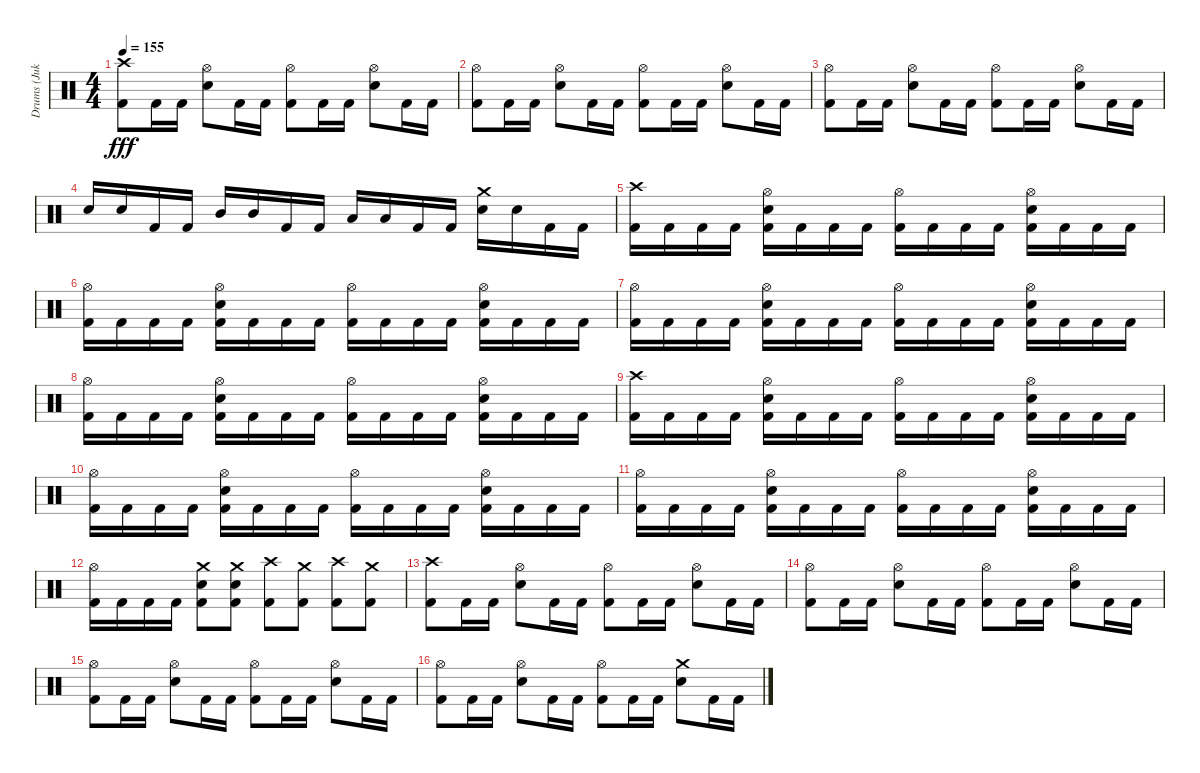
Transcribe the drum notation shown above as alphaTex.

\track ("Drums (Jukka)" "Drums (Juk") {instrument percussion}
\staff {score}
\articulation defaults
\ts (4 4)
\tempo 155
\clef neutral
\ks c
("Kick (hit) 2" "Crash high (hit)").8{dy fff} "Kick (hit) 2".16 "Kick (hit) 2".16 ("Snare (hit) 2" "Hi-Hat (open)").8 "Kick (hit) 2".16 "Kick (hit) 2".16 ("Kick (hit) 2" "Hi-Hat (open)").8 "Kick (hit) 2".16 "Kick (hit) 2".16 ("Snare (hit) 2" "Hi-Hat (open)").8 "Kick (hit) 2".16 "Kick (hit) 2".16 |
("Kick (hit) 2" "Hi-Hat (open)").8 "Kick (hit) 2".16 "Kick (hit) 2".16 ("Snare (hit) 2" "Hi-Hat (open)").8 "Kick (hit) 2".16 "Kick (hit) 2".16 ("Kick (hit) 2" "Hi-Hat (open)").8 "Kick (hit) 2".16 "Kick (hit) 2".16 ("Snare (hit) 2" "Hi-Hat (open)").8 "Kick (hit) 2".16 "Kick (hit) 2".16 |
("Kick (hit) 2" "Hi-Hat (open)").8 "Kick (hit) 2".16 "Kick (hit) 2".16 ("Snare (hit) 2" "Hi-Hat (open)").8 "Kick (hit) 2".16 "Kick (hit) 2".16 ("Kick (hit) 2" "Hi-Hat (open)").8 "Kick (hit) 2".16 "Kick (hit) 2".16 ("Snare (hit) 2" "Hi-Hat (open)").8 "Kick (hit) 2".16 "Kick (hit) 2".16 |
"Snare (hit) 2".16 "Snare (hit) 2".16 "Kick (hit) 2".16 "Kick (hit) 2".16 "Mid Tom (hit)".16 "Mid Tom (hit)".16 "Kick (hit) 2".16 "Kick (hit) 2".16 "Low Tom (hit)".16 "Low Tom (hit)".16 "Kick (hit) 2".16 "Kick (hit) 2".16 ("Snare (hit) 2" "Crash medium (hit)").16 "Snare (hit) 2".16 "Kick (hit) 2".16 "Kick (hit) 2".16 |
("Kick (hit) 2" "Crash high (hit)").16 "Kick (hit) 2".16 "Kick (hit) 2".16 "Kick (hit) 2".16 ("Snare (hit) 2" "Kick (hit) 2" "Hi-Hat (open)").16 "Kick (hit) 2".16 "Kick (hit) 2".16 "Kick (hit) 2".16 ("Kick (hit) 2" "Hi-Hat (open)").16 "Kick (hit) 2".16 "Kick (hit) 2".16 "Kick (hit) 2".16 ("Snare (hit) 2" "Kick (hit) 2" "Hi-Hat (open)").16 "Kick (hit) 2".16 "Kick (hit) 2".16 "Kick (hit) 2".16 |
("Kick (hit) 2" "Hi-Hat (open)").16 "Kick (hit) 2".16 "Kick (hit) 2".16 "Kick (hit) 2".16 ("Snare (hit) 2" "Kick (hit) 2" "Hi-Hat (open)").16 "Kick (hit) 2".16 "Kick (hit) 2".16 "Kick (hit) 2".16 ("Kick (hit) 2" "Hi-Hat (open)").16 "Kick (hit) 2".16 "Kick (hit) 2".16 "Kick (hit) 2".16 ("Snare (hit) 2" "Kick (hit) 2" "Hi-Hat (open)").16 "Kick (hit) 2".16 "Kick (hit) 2".16 "Kick (hit) 2".16 |
("Kick (hit) 2" "Hi-Hat (open)").16 "Kick (hit) 2".16 "Kick (hit) 2".16 "Kick (hit) 2".16 ("Snare (hit) 2" "Kick (hit) 2" "Hi-Hat (open)").16 "Kick (hit) 2".16 "Kick (hit) 2".16 "Kick (hit) 2".16 ("Kick (hit) 2" "Hi-Hat (open)").16 "Kick (hit) 2".16 "Kick (hit) 2".16 "Kick (hit) 2".16 ("Snare (hit) 2" "Kick (hit) 2" "Hi-Hat (open)").16 "Kick (hit) 2".16 "Kick (hit) 2".16 "Kick (hit) 2".16 |
("Kick (hit) 2" "Hi-Hat (open)").16 "Kick (hit) 2".16 "Kick (hit) 2".16 "Kick (hit) 2".16 ("Snare (hit) 2" "Kick (hit) 2" "Hi-Hat (open)").16 "Kick (hit) 2".16 "Kick (hit) 2".16 "Kick (hit) 2".16 ("Kick (hit) 2" "Hi-Hat (open)").16 "Kick (hit) 2".16 "Kick (hit) 2".16 "Kick (hit) 2".16 ("Snare (hit) 2" "Kick (hit) 2" "Hi-Hat (open)").16 "Kick (hit) 2".16 "Kick (hit) 2".16 "Kick (hit) 2".16 |
("Kick (hit) 2" "Crash high (hit)").16 "Kick (hit) 2".16 "Kick (hit) 2".16 "Kick (hit) 2".16 ("Snare (hit) 2" "Kick (hit) 2" "Hi-Hat (open)").16 "Kick (hit) 2".16 "Kick (hit) 2".16 "Kick (hit) 2".16 ("Kick (hit) 2" "Hi-Hat (open)").16 "Kick (hit) 2".16 "Kick (hit) 2".16 "Kick (hit) 2".16 ("Snare (hit) 2" "Kick (hit) 2" "Hi-Hat (open)").16 "Kick (hit) 2".16 "Kick (hit) 2".16 "Kick (hit) 2".16 |
("Kick (hit) 2" "Hi-Hat (open)").16 "Kick (hit) 2".16 "Kick (hit) 2".16 "Kick (hit) 2".16 ("Snare (hit) 2" "Kick (hit) 2" "Hi-Hat (open)").16 "Kick (hit) 2".16 "Kick (hit) 2".16 "Kick (hit) 2".16 ("Kick (hit) 2" "Hi-Hat (open)").16 "Kick (hit) 2".16 "Kick (hit) 2".16 "Kick (hit) 2".16 ("Snare (hit) 2" "Kick (hit) 2" "Hi-Hat (open)").16 "Kick (hit) 2".16 "Kick (hit) 2".16 "Kick (hit) 2".16 |
("Kick (hit) 2" "Hi-Hat (open)").16 "Kick (hit) 2".16 "Kick (hit) 2".16 "Kick (hit) 2".16 ("Snare (hit) 2" "Kick (hit) 2" "Hi-Hat (open)").16 "Kick (hit) 2".16 "Kick (hit) 2".16 "Kick (hit) 2".16 ("Kick (hit) 2" "Hi-Hat (open)").16 "Kick (hit) 2".16 "Kick (hit) 2".16 "Kick (hit) 2".16 ("Snare (hit) 2" "Kick (hit) 2" "Hi-Hat (open)").16 "Kick (hit) 2".16 "Kick (hit) 2".16 "Kick (hit) 2".16 |
("Kick (hit) 2" "Hi-Hat (open)").16 "Kick (hit) 2".16 "Kick (hit) 2".16 "Kick (hit) 2".16 ("Snare (hit) 2" "Kick (hit) 2" "Crash medium (hit)").8 ("Kick (hit) 2" "Snare (hit) 2" "Crash medium (hit)").8 ("Kick (hit) 2" "Crash high (hit)").8 ("Kick (hit) 2" "Crash medium (hit)").8 ("Kick (hit) 2" "Crash high (hit)").8 ("Kick (hit) 2" "Crash medium (hit)").8 |
("Kick (hit) 2" "Crash high (hit)").8 "Kick (hit) 2".16 "Kick (hit) 2".16 ("Snare (hit) 2" "Hi-Hat (open)").8 "Kick (hit) 2".16 "Kick (hit) 2".16 ("Kick (hit) 2" "Hi-Hat (open)").8 "Kick (hit) 2".16 "Kick (hit) 2".16 ("Snare (hit) 2" "Hi-Hat (open)").8 "Kick (hit) 2".16 "Kick (hit) 2".16 |
("Kick (hit) 2" "Hi-Hat (open)").8 "Kick (hit) 2".16 "Kick (hit) 2".16 ("Snare (hit) 2" "Hi-Hat (open)").8 "Kick (hit) 2".16 "Kick (hit) 2".16 ("Kick (hit) 2" "Hi-Hat (open)").8 "Kick (hit) 2".16 "Kick (hit) 2".16 ("Snare (hit) 2" "Hi-Hat (open)").8 "Kick (hit) 2".16 "Kick (hit) 2".16 |
("Kick (hit) 2" "Hi-Hat (open)").8 "Kick (hit) 2".16 "Kick (hit) 2".16 ("Snare (hit) 2" "Hi-Hat (open)").8 "Kick (hit) 2".16 "Kick (hit) 2".16 ("Kick (hit) 2" "Hi-Hat (open)").8 "Kick (hit) 2".16 "Kick (hit) 2".16 ("Snare (hit) 2" "Hi-Hat (open)").8 "Kick (hit) 2".16 "Kick (hit) 2".16 |
("Kick (hit) 2" "Hi-Hat (open)").8 "Kick (hit) 2".16 "Kick (hit) 2".16 ("Snare (hit) 2" "Hi-Hat (open)").8 "Kick (hit) 2".16 "Kick (hit) 2".16 ("Kick (hit) 2" "Hi-Hat (open)").8 "Kick (hit) 2".16 "Kick (hit) 2".16 ("Snare (hit) 2" "Crash medium (hit)").8 "Kick (hit) 2".16 "Kick (hit) 2".16
